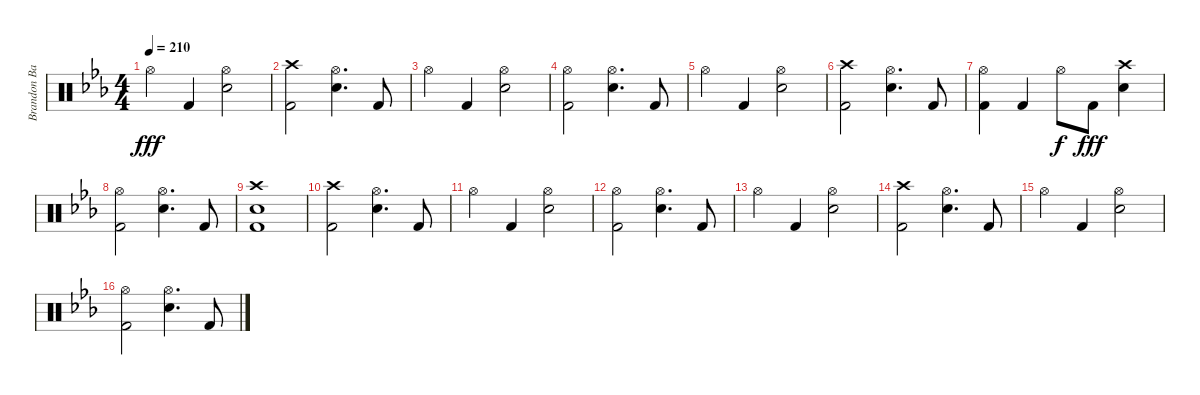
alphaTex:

\track ("Brandon Barnes" "Brandon Ba") {instrument percussion}
\staff {score}
\articulation defaults
\ts (4 4)
\tempo 210
\clef neutral
\ks eb "Hi-Hat (open)".4{dy fff} "Kick (hit) 2".4
("Hi-Hat (open)" "Snare (hit) 2").2 |
("Crash high (hit)" "Kick (hit) 2").2 ("Hi-Hat (open)" "Snare (hit) 2").4{d} "Kick (hit) 2".8 |
"Hi-Hat (open)".4 "Kick (hit) 2".4 ("Hi-Hat (open)" "Snare (hit) 2").2 |
("Hi-Hat (open)" "Kick (hit) 2").2 ("Hi-Hat (open)" "Snare (hit) 2").4{d} "Kick (hit) 2".8 |
"Hi-Hat (open)".4 "Kick (hit) 2".4 ("Hi-Hat (open)" "Snare (hit) 2").2 |
("Crash high (hit)" "Kick (hit) 2").2 ("Hi-Hat (open)" "Snare (hit) 2").4{d} "Kick (hit) 2".8 |
("Hi-Hat (open)" "Kick (hit) 2").4 "Kick (hit) 2".4 "Hi-Hat (open)".8{dy f} "Kick (hit) 2".8{dy fff} ("Crash high (hit)" "Snare (hit) 2").4 |
("Hi-Hat (open)" "Kick (hit) 2").2 ("Hi-Hat (open)" "Snare (hit) 2").4{d} "Kick (hit) 2".8 |
("Snare (hit) 2" "Crash high (hit)" "Kick (hit) 2").1 |
("Crash high (hit)" "Kick (hit) 2").2 ("Hi-Hat (open)" "Snare (hit) 2").4{d} "Kick (hit) 2".8 |
"Hi-Hat (open)".4 "Kick (hit) 2".4 ("Hi-Hat (open)" "Snare (hit) 2").2 |
("Hi-Hat (open)" "Kick (hit) 2").2 ("Hi-Hat (open)" "Snare (hit) 2").4{d} "Kick (hit) 2".8 |
"Hi-Hat (open)".4 "Kick (hit) 2".4 ("Hi-Hat (open)" "Snare (hit) 2").2 |
("Crash high (hit)" "Kick (hit) 2").2 ("Hi-Hat (open)" "Snare (hit) 2").4{d} "Kick (hit) 2".8 |
"Hi-Hat (open)".4 "Kick (hit) 2".4 ("Hi-Hat (open)" "Snare (hit) 2").2 |
("Hi-Hat (open)" "Kick (hit) 2").2 ("Hi-Hat (open)" "Snare (hit) 2").4{d} "Kick (hit) 2".8
